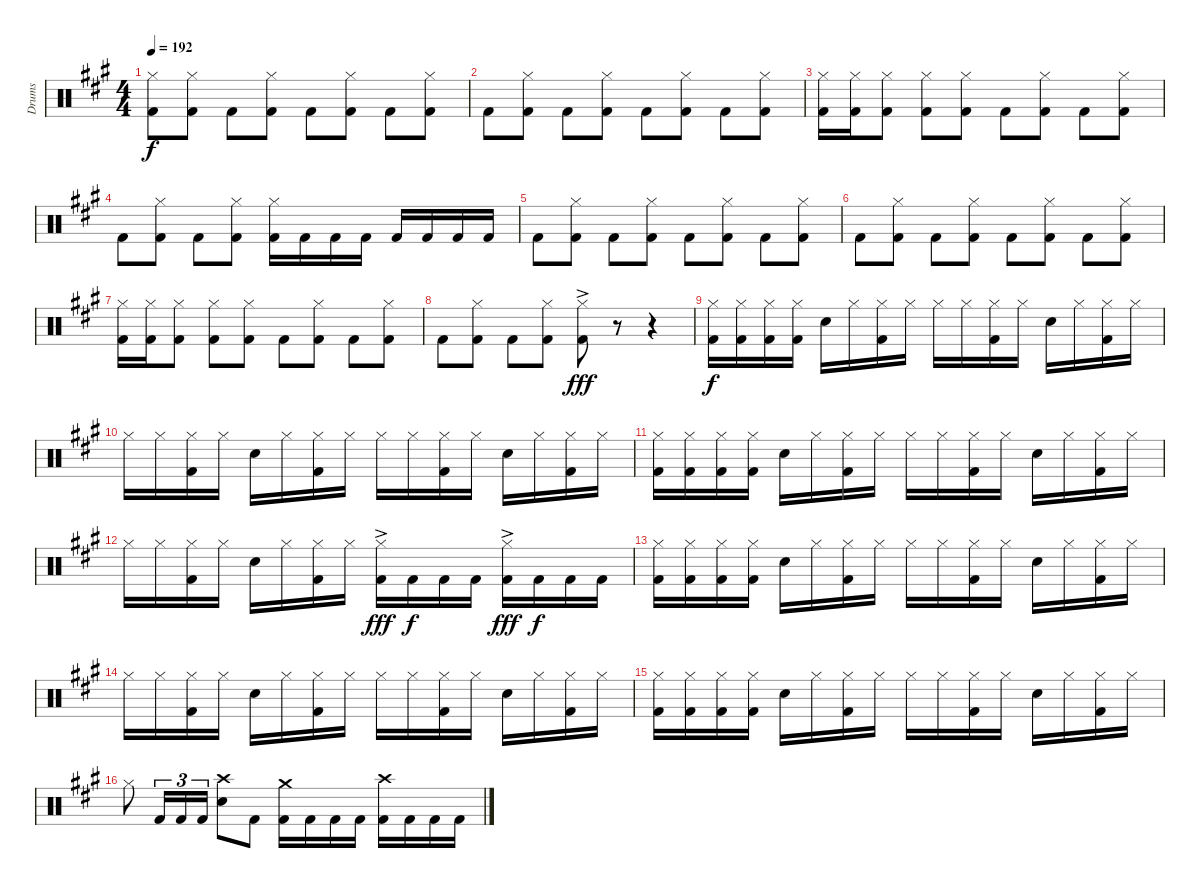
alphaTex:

\track ("Drums" "Drums") {instrument percussion}
\staff {score}
\articulation defaults
\ts (4 4)
\tempo 192
\clef neutral
\ks f#minor
("Hi-Hat (closed)" "Kick (hit) 2").8{dy f} ("Hi-Hat (closed)" "Kick (hit) 2").8 "Kick (hit) 2".8 ("Hi-Hat (closed)" "Kick (hit) 2").8 "Kick (hit) 2".8 ("Hi-Hat (closed)" "Kick (hit) 2").8 "Kick (hit) 2".8 ("Hi-Hat (closed)" "Kick (hit) 2").8 |
"Kick (hit) 2".8 ("Hi-Hat (closed)" "Kick (hit) 2").8 "Kick (hit) 2".8 ("Hi-Hat (closed)" "Kick (hit) 2").8 "Kick (hit) 2".8 ("Hi-Hat (closed)" "Kick (hit) 2").8 "Kick (hit) 2".8 ("Hi-Hat (closed)" "Kick (hit) 2").8 |
("Hi-Hat (closed)" "Kick (hit) 2").16 ("Hi-Hat (closed)" "Kick (hit) 2").16 ("Hi-Hat (closed)" "Kick (hit) 2").8 ("Hi-Hat (closed)" "Kick (hit) 2").8 ("Hi-Hat (closed)" "Kick (hit) 2").8 "Kick (hit) 2".8 ("Hi-Hat (closed)" "Kick (hit) 2").8 "Kick (hit) 2".8 ("Hi-Hat (closed)" "Kick (hit) 2").8 |
"Kick (hit) 2".8 ("Hi-Hat (closed)" "Kick (hit) 2").8 "Kick (hit) 2".8 ("Hi-Hat (closed)" "Kick (hit) 2").8 ("Hi-Hat (closed)" "Kick (hit) 2").16 "Kick (hit) 2".16 "Kick (hit) 2".16 "Kick (hit) 2".16 "Kick (hit) 2".16 "Kick (hit) 2".16 "Kick (hit) 2".16 "Kick (hit) 2".16 |
"Kick (hit) 2".8 ("Hi-Hat (closed)" "Kick (hit) 2").8 "Kick (hit) 2".8 ("Hi-Hat (closed)" "Kick (hit) 2").8 "Kick (hit) 2".8 ("Hi-Hat (closed)" "Kick (hit) 2").8 "Kick (hit) 2".8 ("Hi-Hat (closed)" "Kick (hit) 2").8 |
"Kick (hit) 2".8 ("Hi-Hat (closed)" "Kick (hit) 2").8 "Kick (hit) 2".8 ("Hi-Hat (closed)" "Kick (hit) 2").8 "Kick (hit) 2".8 ("Hi-Hat (closed)" "Kick (hit) 2").8 "Kick (hit) 2".8 ("Hi-Hat (closed)" "Kick (hit) 2").8 |
("Hi-Hat (closed)" "Kick (hit) 2").16 ("Hi-Hat (closed)" "Kick (hit) 2").16 ("Hi-Hat (closed)" "Kick (hit) 2").8 ("Hi-Hat (closed)" "Kick (hit) 2").8 ("Hi-Hat (closed)" "Kick (hit) 2").8 "Kick (hit) 2".8 ("Hi-Hat (closed)" "Kick (hit) 2").8 "Kick (hit) 2".8 ("Hi-Hat (closed)" "Kick (hit) 2").8 |
"Kick (hit) 2".8 ("Hi-Hat (closed)" "Kick (hit) 2").8 "Kick (hit) 2".8 ("Hi-Hat (closed)" "Kick (hit) 2").8 ("Hi-Hat (closed)"{ac} "Kick (hit) 2"{ac}).8{dy fff} r.8 r.4 |
("Hi-Hat (closed)" "Kick (hit) 2").16{dy f} ("Hi-Hat (closed)" "Kick (hit) 2").16 ("Hi-Hat (closed)" "Kick (hit) 2").16 ("Hi-Hat (closed)" "Kick (hit) 2").16 "Snare (hit) 2".16 "Hi-Hat (closed)".16 ("Hi-Hat (closed)" "Kick (hit) 2").16 "Hi-Hat (closed)".16 "Hi-Hat (closed)".16 "Hi-Hat (closed)".16 ("Hi-Hat (closed)" "Kick (hit) 2").16 "Hi-Hat (closed)".16 "Snare (hit) 2".16 "Hi-Hat (closed)".16 ("Hi-Hat (closed)" "Kick (hit) 2").16 "Hi-Hat (closed)".16 |
"Hi-Hat (closed)".16 "Hi-Hat (closed)".16 ("Hi-Hat (closed)" "Kick (hit) 2").16 "Hi-Hat (closed)".16 "Snare (hit) 2".16 "Hi-Hat (closed)".16 ("Hi-Hat (closed)" "Kick (hit) 2").16 "Hi-Hat (closed)".16 "Hi-Hat (closed)".16 "Hi-Hat (closed)".16 ("Hi-Hat (closed)" "Kick (hit) 2").16 "Hi-Hat (closed)".16 "Snare (hit) 2".16 "Hi-Hat (closed)".16 ("Hi-Hat (closed)" "Kick (hit) 2").16 "Hi-Hat (closed)".16 |
("Hi-Hat (closed)" "Kick (hit) 2").16 ("Hi-Hat (closed)" "Kick (hit) 2").16 ("Hi-Hat (closed)" "Kick (hit) 2").16 ("Hi-Hat (closed)" "Kick (hit) 2").16 "Snare (hit) 2".16 "Hi-Hat (closed)".16 ("Hi-Hat (closed)" "Kick (hit) 2").16 "Hi-Hat (closed)".16 "Hi-Hat (closed)".16 "Hi-Hat (closed)".16 ("Hi-Hat (closed)" "Kick (hit) 2").16 "Hi-Hat (closed)".16 "Snare (hit) 2".16 "Hi-Hat (closed)".16 ("Hi-Hat (closed)" "Kick (hit) 2").16 "Hi-Hat (closed)".16 |
"Hi-Hat (closed)".16 "Hi-Hat (closed)".16 ("Hi-Hat (closed)" "Kick (hit) 2").16 "Hi-Hat (closed)".16 "Snare (hit) 2".16 "Hi-Hat (closed)".16 ("Hi-Hat (closed)" "Kick (hit) 2").16 "Hi-Hat (closed)".16 ("Hi-Hat (closed)"{ac} "Kick (hit) 2").16{dy fff} "Kick (hit) 2".16{dy f} "Kick (hit) 2".16 "Kick (hit) 2".16 ("Hi-Hat (closed)"{ac} "Kick (hit) 2").16{dy fff} "Kick (hit) 2".16{dy f} "Kick (hit) 2".16 "Kick (hit) 2".16 |
("Hi-Hat (closed)" "Kick (hit) 2").16 ("Hi-Hat (closed)" "Kick (hit) 2").16 ("Hi-Hat (closed)" "Kick (hit) 2").16 ("Hi-Hat (closed)" "Kick (hit) 2").16 "Snare (hit) 2".16 "Hi-Hat (closed)".16 ("Hi-Hat (closed)" "Kick (hit) 2").16 "Hi-Hat (closed)".16 "Hi-Hat (closed)".16 "Hi-Hat (closed)".16 ("Hi-Hat (closed)" "Kick (hit) 2").16 "Hi-Hat (closed)".16 "Snare (hit) 2".16 "Hi-Hat (closed)".16 ("Hi-Hat (closed)" "Kick (hit) 2").16 "Hi-Hat (closed)".16 |
"Hi-Hat (closed)".16 "Hi-Hat (closed)".16 ("Hi-Hat (closed)" "Kick (hit) 2").16 "Hi-Hat (closed)".16 "Snare (hit) 2".16 "Hi-Hat (closed)".16 ("Hi-Hat (closed)" "Kick (hit) 2").16 "Hi-Hat (closed)".16 "Hi-Hat (closed)".16 "Hi-Hat (closed)".16 ("Hi-Hat (closed)" "Kick (hit) 2").16 "Hi-Hat (closed)".16 "Snare (hit) 2".16 "Hi-Hat (closed)".16 ("Hi-Hat (closed)" "Kick (hit) 2").16 "Hi-Hat (closed)".16 |
("Hi-Hat (closed)" "Kick (hit) 2").16 ("Hi-Hat (closed)" "Kick (hit) 2").16 ("Hi-Hat (closed)" "Kick (hit) 2").16 ("Hi-Hat (closed)" "Kick (hit) 2").16 "Snare (hit) 2".16 "Hi-Hat (closed)".16 ("Hi-Hat (closed)" "Kick (hit) 2").16 "Hi-Hat (closed)".16 "Hi-Hat (closed)".16 "Hi-Hat (closed)".16 ("Hi-Hat (closed)" "Kick (hit) 2").16 "Hi-Hat (closed)".16 "Snare (hit) 2".16 "Hi-Hat (closed)".16 ("Hi-Hat (closed)" "Kick (hit) 2").16 "Hi-Hat (closed)".16 |
"Hi-Hat (closed)".8 "Kick (hit) 2".16{tu (3 2)} "Kick (hit) 2".16{tu (3 2)} "Kick (hit) 2".16{tu (3 2)} ("Crash high (hit)" "Snare (hit) 2").8 "Kick (hit) 2".8 ("Crash medium (hit)" "Kick (hit) 2").16 "Kick (hit) 2".16 "Kick (hit) 2".16 "Kick (hit) 2".16 ("Crash high (hit)" "Kick (hit) 2").16 "Kick (hit) 2".16 "Kick (hit) 2".16 "Kick (hit) 2".16
